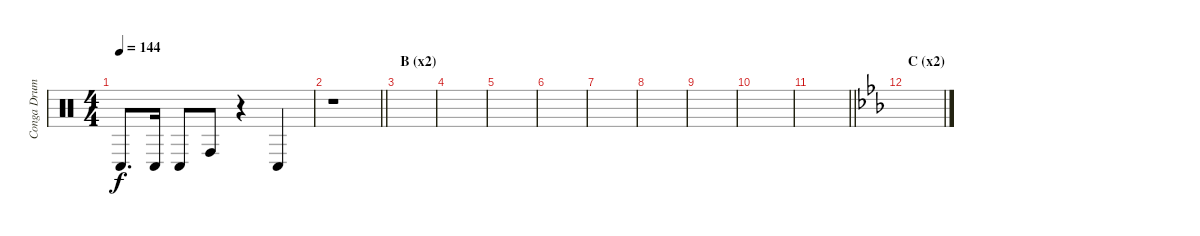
\track ("Conga Drums" "Conga Drum") {instrument percussion}
\staff {score}
\articulation defaults
\ts (4 4)
\tempo 144
\clef neutral
\ks c "Conga low (hit)".8{d dy f} "Conga low (hit)".16 "Conga low (hit)".8 "Conga high (hit)".8
r.4 "Conga low (hit)".4 |
\barLineRight lightlight
r.1 |
\section ("" "B (x2)")
|
|
|
|
|
|
|
|
\barLineRight lightlight
|
\section ("" "C (x2)")
\ks eb
